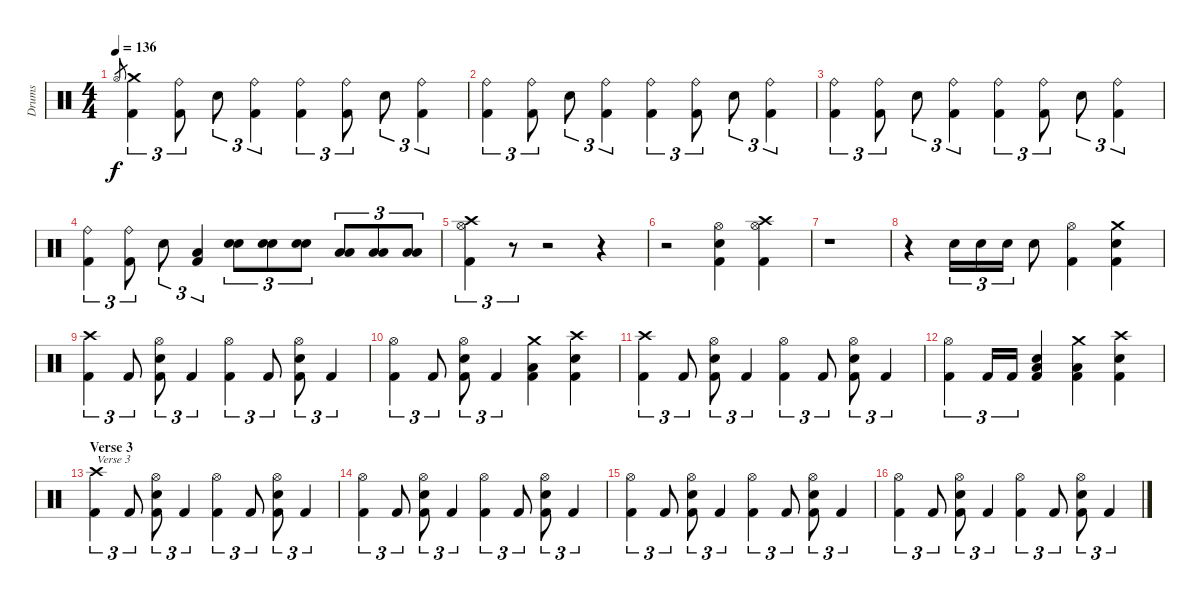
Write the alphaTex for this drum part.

\track ("Drums" "Drums") {instrument percussion}
\staff {score}
\articulation defaults
\ts (4 4)
\tempo 136
\clef neutral
\ks c "Hi-Hat (open)".8{gr dy f}
("Crash medium (hit)" "Kick (hit) 2").4{tu (3 2)} ("Ride (bell)" "Kick (hit) 2").8{tu (3 2)} "Electric Snare (hit)".8{tu (3 2)} ("Ride (bell)" "Kick (hit) 2").4{tu (3 2)} ("Ride (bell)" "Kick (hit) 2").4{tu (3 2)} ("Ride (bell)" "Kick (hit) 2").8{tu (3 2)} "Electric Snare (hit)".8{tu (3 2)} ("Ride (bell)" "Kick (hit) 2").4{tu (3 2)} |
("Ride (bell)" "Kick (hit) 2").4{tu (3 2)} ("Ride (bell)" "Kick (hit) 2").8{tu (3 2)} "Electric Snare (hit)".8{tu (3 2)} ("Ride (bell)" "Kick (hit) 2").4{tu (3 2)} ("Ride (bell)" "Kick (hit) 2").4{tu (3 2)} ("Ride (bell)" "Kick (hit) 2").8{tu (3 2)} "Electric Snare (hit)".8{tu (3 2)} ("Ride (bell)" "Kick (hit) 2").4{tu (3 2)} |
("Ride (bell)" "Kick (hit) 2").4{tu (3 2)} ("Ride (bell)" "Kick (hit) 2").8{tu (3 2)} "Electric Snare (hit)".8{tu (3 2)} ("Ride (bell)" "Kick (hit) 2").4{tu (3 2)} ("Ride (bell)" "Kick (hit) 2").4{tu (3 2)} ("Ride (bell)" "Kick (hit) 2").8{tu (3 2)} "Electric Snare (hit)".8{tu (3 2)} ("Ride (bell)" "Kick (hit) 2").4{tu (3 2)} |
("Ride (bell)" "Kick (hit) 2").4{tu (3 2)} ("Ride (bell)" "Kick (hit) 2").8{tu (3 2)} "Electric Snare (hit)".8{tu (3 2)} ("Low Floor Tom (hit)" "Kick (hit) 2").4{tu (3 2)} ("Electric Snare (hit)" "Electric Snare (hit)").8{tu (3 2)} ("Electric Snare (hit)" "Electric Snare (hit)").8{tu (3 2)} ("Electric Snare (hit)" "Electric Snare (hit)").8{tu (3 2)} ("Low Floor Tom (hit)" "Low Floor Tom (hit)").8{tu (3 2)} ("Low Floor Tom (hit)" "Low Floor Tom (hit)").8{tu (3 2)} ("Low Floor Tom (hit)" "Low Floor Tom (hit)").8{tu (3 2)} |
("Crash high (hit)" "Hi-Hat (open)" "Kick (hit) 2").4{tu (3 2)} r.8{tu (3 2)} r.2 r.4 |
r.2 ("Hi-Hat (open)" "Electric Snare (hit)" "Kick (hit) 2").4 ("Crash high (hit)" "Hi-Hat (open)" "Kick (hit) 2").4 |
r.1 |
r.4 "Electric Snare (hit)".16{tu (3 2)} "Electric Snare (hit)".16{tu (3 2)} "Electric Snare (hit)".16{tu (3 2)} "Electric Snare (hit)".8 ("Hi-Hat (open)" "Kick (hit) 2").4 ("Crash medium (hit)" "Electric Snare (hit)" "Kick (hit) 2").4 |
("Crash high (hit)" "Kick (hit) 2").4{tu (3 2)} "Kick (hit) 2".8{tu (3 2)} ("Hi-Hat (open)" "Electric Snare (hit)" "Kick (hit) 2").8{tu (3 2)} "Kick (hit) 2".4{tu (3 2)} ("Hi-Hat (open)" "Kick (hit) 2").4{tu (3 2)} "Kick (hit) 2".8{tu (3 2)} ("Hi-Hat (open)" "Electric Snare (hit)" "Kick (hit) 2").8{tu (3 2)} "Kick (hit) 2".4{tu (3 2)} |
("Hi-Hat (open)" "Kick (hit) 2").4{tu (3 2)} "Kick (hit) 2".8{tu (3 2)} ("Hi-Hat (open)" "Electric Snare (hit)" "Kick (hit) 2").8{tu (3 2)} "Kick (hit) 2".4{tu (3 2)} ("Crash medium (hit)" "Low Floor Tom (hit)" "Kick (hit) 2").4 ("Crash high (hit)" "Electric Snare (hit)" "Kick (hit) 2").4 |
("Crash high (hit)" "Kick (hit) 2").4{tu (3 2)} "Kick (hit) 2".8{tu (3 2)} ("Hi-Hat (open)" "Electric Snare (hit)" "Kick (hit) 2").8{tu (3 2)} "Kick (hit) 2".4{tu (3 2)} ("Hi-Hat (open)" "Kick (hit) 2").4{tu (3 2)} "Kick (hit) 2".8{tu (3 2)} ("Hi-Hat (open)" "Electric Snare (hit)" "Kick (hit) 2").8{tu (3 2)} "Kick (hit) 2".4{tu (3 2)} |
("Hi-Hat (open)" "Kick (hit) 2").4{tu (3 2)} "Kick (hit) 2".16{tu (3 2)} "Kick (hit) 2".16{tu (3 2)} ("Low Floor Tom (hit)" "Electric Snare (hit)" "Kick (hit) 2").4 ("Crash medium (hit)" "Low Floor Tom (hit)" "Kick (hit) 2").4 ("Crash high (hit)" "Electric Snare (hit)" "Kick (hit) 2").4 |
\section ("" "Verse 3")
("Crash high (hit)" "Kick (hit) 2").4{tu (3 2) txt "Verse 3"} "Kick (hit) 2".8{tu (3 2)} ("Hi-Hat (open)" "Electric Snare (hit)" "Kick (hit) 2").8{tu (3 2)} "Kick (hit) 2".4{tu (3 2)} ("Hi-Hat (open)" "Kick (hit) 2").4{tu (3 2)} "Kick (hit) 2".8{tu (3 2)} ("Hi-Hat (open)" "Electric Snare (hit)" "Kick (hit) 2").8{tu (3 2)} "Kick (hit) 2".4{tu (3 2)} |
("Hi-Hat (open)" "Kick (hit) 2").4{tu (3 2)} "Kick (hit) 2".8{tu (3 2)} ("Hi-Hat (open)" "Electric Snare (hit)" "Kick (hit) 2").8{tu (3 2)} "Kick (hit) 2".4{tu (3 2)} ("Hi-Hat (open)" "Kick (hit) 2").4{tu (3 2)} "Kick (hit) 2".8{tu (3 2)} ("Hi-Hat (open)" "Electric Snare (hit)" "Kick (hit) 2").8{tu (3 2)} "Kick (hit) 2".4{tu (3 2)} |
("Hi-Hat (open)" "Kick (hit) 2").4{tu (3 2)} "Kick (hit) 2".8{tu (3 2)} ("Hi-Hat (open)" "Electric Snare (hit)" "Kick (hit) 2").8{tu (3 2)} "Kick (hit) 2".4{tu (3 2)} ("Hi-Hat (open)" "Kick (hit) 2").4{tu (3 2)} "Kick (hit) 2".8{tu (3 2)} ("Hi-Hat (open)" "Electric Snare (hit)" "Kick (hit) 2").8{tu (3 2)} "Kick (hit) 2".4{tu (3 2)} |
("Hi-Hat (open)" "Kick (hit) 2").4{tu (3 2)} "Kick (hit) 2".8{tu (3 2)} ("Hi-Hat (open)" "Electric Snare (hit)" "Kick (hit) 2").8{tu (3 2)} "Kick (hit) 2".4{tu (3 2)} ("Hi-Hat (open)" "Kick (hit) 2").4{tu (3 2)} "Kick (hit) 2".8{tu (3 2)} ("Hi-Hat (open)" "Electric Snare (hit)" "Kick (hit) 2").8{tu (3 2)} "Kick (hit) 2".4{tu (3 2)}
